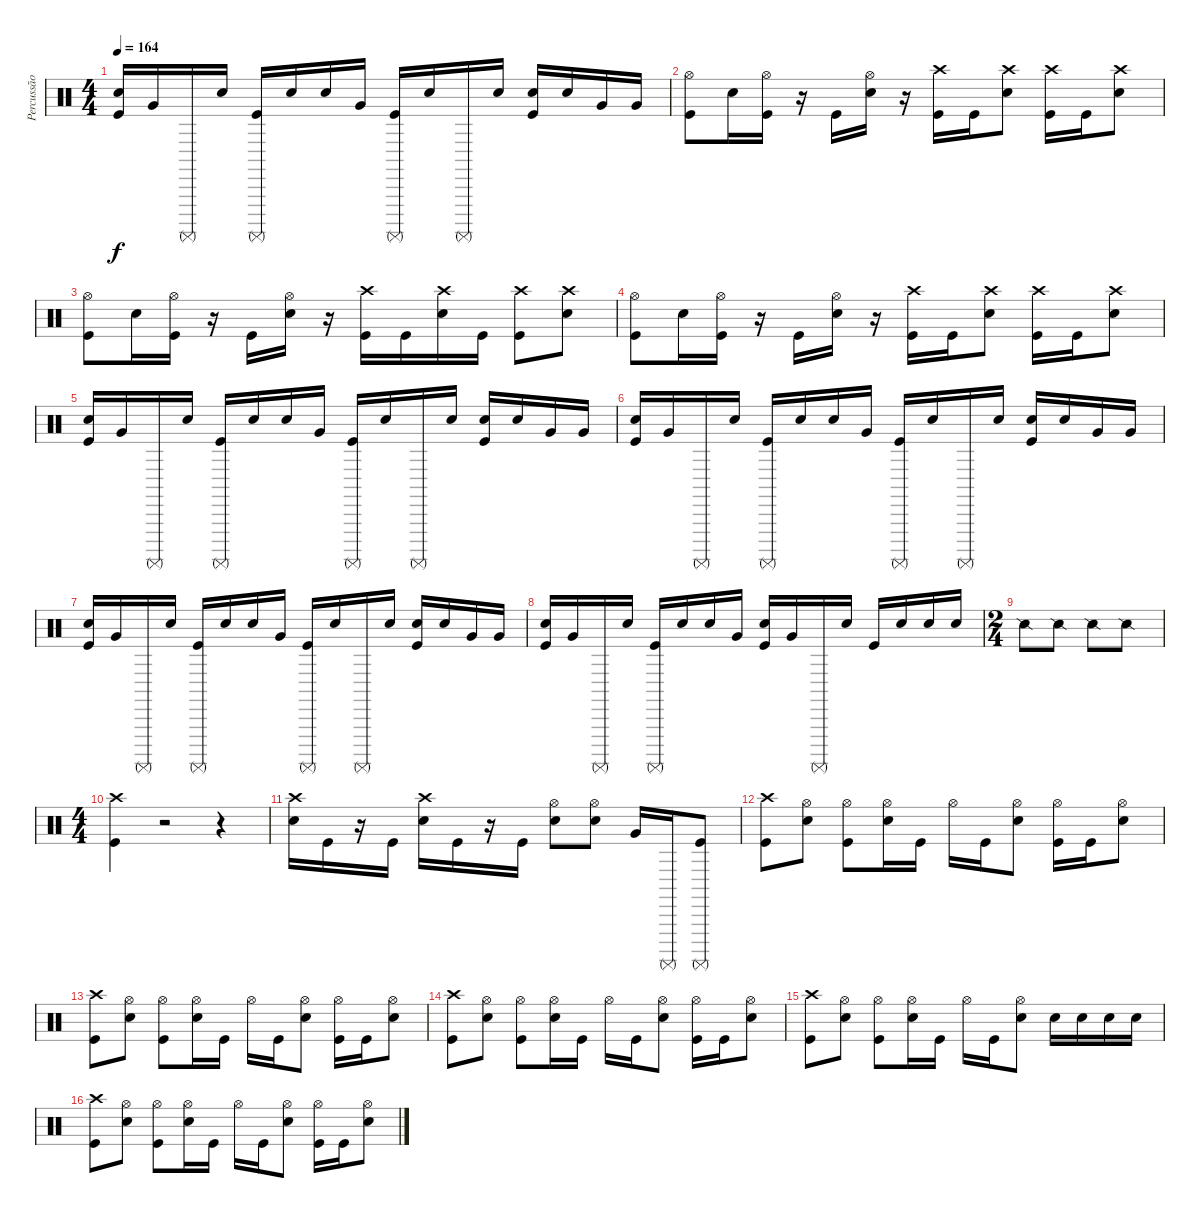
\track ("Percussão" "Percussão") {instrument percussion}
\staff {score}
\articulation defaults
\ts (4 4)
\tempo 164
\clef neutral
\ks c
("Electric Snare (hit)" "Kick (hit)").16{dy f} "Very Low Tom (hit)".16 "Surdo (mute)".16 "Electric Snare (hit)".16 ("Surdo (mute)" "Kick (hit)").16 "Electric Snare (hit)".16 "Electric Snare (hit)".16 "Very Low Tom (hit)".16 ("Surdo (mute)" "Kick (hit)").16 "Electric Snare (hit)".16 "Surdo (mute)".16 "Electric Snare (hit)".16 ("Electric Snare (hit)" "Kick (hit)").16 "Electric Snare (hit)".16 "Very Low Tom (hit)".16 "Very Low Tom (hit)".16 |
("Hi-Hat (open)" "Kick (hit)").8 "Electric Snare (hit)".16 ("Hi-Hat (open)" "Kick (hit)").16 r.16 "Kick (hit)".16 ("Hi-Hat (open)" "Electric Snare (hit)").16 r.16 ("Crash high (hit)" "Kick (hit)").16 "Kick (hit)".16 ("Crash high (hit)" "Electric Snare (hit)").8 ("Crash high (hit)" "Kick (hit)").16 "Kick (hit)".16 ("Crash high (hit)" "Electric Snare (hit)").8 |
("Hi-Hat (open)" "Kick (hit)").8 "Electric Snare (hit)".16 ("Hi-Hat (open)" "Kick (hit)").16 r.16 "Kick (hit)".16 ("Hi-Hat (open)" "Electric Snare (hit)").16 r.16 ("Crash high (hit)" "Kick (hit)").16 "Kick (hit)".16 ("Crash high (hit)" "Electric Snare (hit)").16 "Kick (hit)".16 ("Crash high (hit)" "Kick (hit)").8 ("Crash high (hit)" "Electric Snare (hit)").8 |
("Hi-Hat (open)" "Kick (hit)").8 "Electric Snare (hit)".16 ("Hi-Hat (open)" "Kick (hit)").16 r.16 "Kick (hit)".16 ("Hi-Hat (open)" "Electric Snare (hit)").16 r.16 ("Crash high (hit)" "Kick (hit)").16 "Kick (hit)".16 ("Crash high (hit)" "Electric Snare (hit)").8 ("Crash high (hit)" "Kick (hit)").16 "Kick (hit)".16 ("Crash high (hit)" "Electric Snare (hit)").8 |
("Electric Snare (hit)" "Kick (hit)").16 "Very Low Tom (hit)".16 "Surdo (mute)".16 "Electric Snare (hit)".16 ("Surdo (mute)" "Kick (hit)").16 "Electric Snare (hit)".16 "Electric Snare (hit)".16 "Very Low Tom (hit)".16 ("Surdo (mute)" "Kick (hit)").16 "Electric Snare (hit)".16 "Surdo (mute)".16 "Electric Snare (hit)".16 ("Electric Snare (hit)" "Kick (hit)").16 "Electric Snare (hit)".16 "Very Low Tom (hit)".16 "Very Low Tom (hit)".16 |
("Electric Snare (hit)" "Kick (hit)").16 "Very Low Tom (hit)".16 "Surdo (mute)".16 "Electric Snare (hit)".16 ("Surdo (mute)" "Kick (hit)").16 "Electric Snare (hit)".16 "Electric Snare (hit)".16 "Very Low Tom (hit)".16 ("Surdo (mute)" "Kick (hit)").16 "Electric Snare (hit)".16 "Surdo (mute)".16 "Electric Snare (hit)".16 ("Electric Snare (hit)" "Kick (hit)").16 "Electric Snare (hit)".16 "Very Low Tom (hit)".16 "Very Low Tom (hit)".16 |
("Electric Snare (hit)" "Kick (hit)").16 "Very Low Tom (hit)".16 "Surdo (mute)".16 "Electric Snare (hit)".16 ("Surdo (mute)" "Kick (hit)").16 "Electric Snare (hit)".16 "Electric Snare (hit)".16 "Very Low Tom (hit)".16 ("Surdo (mute)" "Kick (hit)").16 "Electric Snare (hit)".16 "Surdo (mute)".16 "Electric Snare (hit)".16 ("Electric Snare (hit)" "Kick (hit)").16 "Electric Snare (hit)".16 "Very Low Tom (hit)".16 "Very Low Tom (hit)".16 |
("Electric Snare (hit)" "Kick (hit)").16 "Very Low Tom (hit)".16 "Surdo (mute)".16 "Electric Snare (hit)".16 ("Surdo (mute)" "Kick (hit)").16 "Electric Snare (hit)".16 "Electric Snare (hit)".16 "Very Low Tom (hit)".16 ("Electric Snare (hit)" "Kick (hit)").16 "Very Low Tom (hit)".16 "Surdo (mute)".16 "Electric Snare (hit)".16 "Kick (hit)".16 "Electric Snare (hit)".16 "Electric Snare (hit)".16 "Electric Snare (hit)".16 |
\ts (2 4)
"Snare (side stick) 2".8 "Snare (side stick) 2".8 "Snare (side stick) 2".8 "Snare (side stick) 2".8 |
\ts (4 4)
("Crash high (hit)" "Kick (hit)").4 r.2 r.4 |
("Crash high (hit)" "Electric Snare (hit)").16 "Kick (hit)".16 r.16 "Kick (hit)".16 ("Crash high (hit)" "Electric Snare (hit)").16 "Kick (hit)".16 r.16 "Kick (hit)".16 ("Hi-Hat (open)" "Electric Snare (hit)").8 ("Hi-Hat (open)" "Electric Snare (hit)").8 "Very Low Tom (hit)".16 "Surdo (mute)".16 ("Surdo (mute)" "Kick (hit)").8 |
("Crash high (hit)" "Kick (hit)").8 ("Hi-Hat (open)" "Electric Snare (hit)").8 ("Hi-Hat (open)" "Kick (hit)").8 ("Hi-Hat (open)" "Electric Snare (hit)").16 "Kick (hit)".16 "Hi-Hat (open)".16 "Kick (hit)".16 ("Hi-Hat (open)" "Electric Snare (hit)").8 ("Hi-Hat (open)" "Kick (hit)").16 "Kick (hit)".16 ("Hi-Hat (open)" "Electric Snare (hit)").8 |
("Crash high (hit)" "Kick (hit)").8 ("Hi-Hat (open)" "Electric Snare (hit)").8 ("Hi-Hat (open)" "Kick (hit)").8 ("Hi-Hat (open)" "Electric Snare (hit)").16 "Kick (hit)".16 "Hi-Hat (open)".16 "Kick (hit)".16 ("Hi-Hat (open)" "Electric Snare (hit)").8 ("Hi-Hat (open)" "Kick (hit)").16 "Kick (hit)".16 ("Hi-Hat (open)" "Electric Snare (hit)").8 |
("Crash high (hit)" "Kick (hit)").8 ("Hi-Hat (open)" "Electric Snare (hit)").8 ("Hi-Hat (open)" "Kick (hit)").8 ("Hi-Hat (open)" "Electric Snare (hit)").16 "Kick (hit)".16 "Hi-Hat (open)".16 "Kick (hit)".16 ("Hi-Hat (open)" "Electric Snare (hit)").8 ("Hi-Hat (open)" "Kick (hit)").16 "Kick (hit)".16 ("Hi-Hat (open)" "Electric Snare (hit)").8 |
("Crash high (hit)" "Kick (hit)").8 ("Hi-Hat (open)" "Electric Snare (hit)").8 ("Hi-Hat (open)" "Kick (hit)").8 ("Hi-Hat (open)" "Electric Snare (hit)").16 "Kick (hit)".16 "Hi-Hat (open)".16 "Kick (hit)".16 ("Hi-Hat (open)" "Electric Snare (hit)").8 "Electric Snare (hit)".16 "Electric Snare (hit)".16 "Electric Snare (hit)".16 "Electric Snare (hit)".16 |
("Crash high (hit)" "Kick (hit)").8 ("Hi-Hat (open)" "Electric Snare (hit)").8 ("Hi-Hat (open)" "Kick (hit)").8 ("Hi-Hat (open)" "Electric Snare (hit)").16 "Kick (hit)".16 "Hi-Hat (open)".16 "Kick (hit)".16 ("Hi-Hat (open)" "Electric Snare (hit)").8 ("Hi-Hat (open)" "Kick (hit)").16 "Kick (hit)".16 ("Hi-Hat (open)" "Electric Snare (hit)").8
